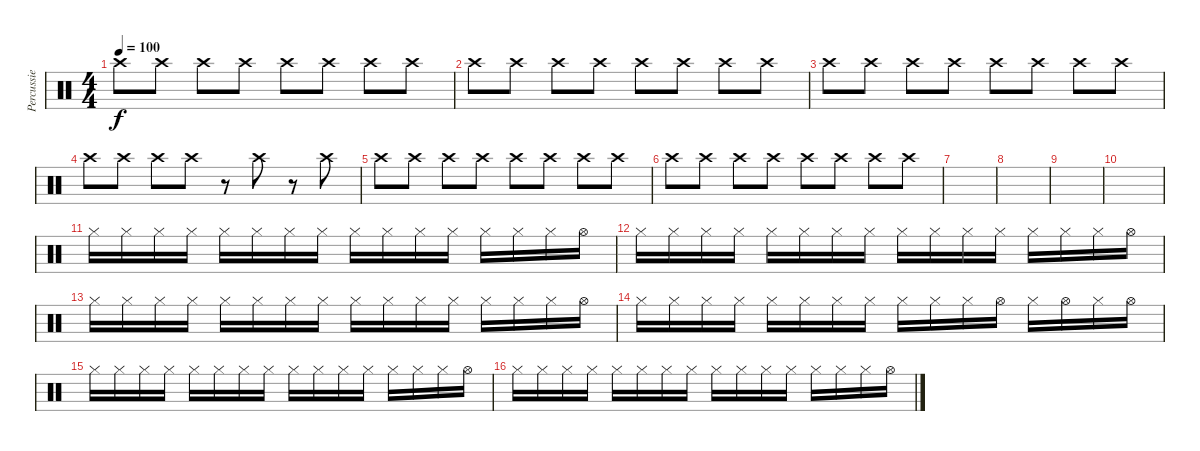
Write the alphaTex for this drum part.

\track ("Percussie" "Percussie") {instrument percussion}
\staff {score}
\articulation defaults
\ts (4 4)
\tempo 100
\clef neutral
\ks c "Crash high (hit)".8{dy f} "Crash high (hit)".8 "Crash high (hit)".8 "Crash high (hit)".8 "Crash high (hit)".8 "Crash high (hit)".8 "Crash high (hit)".8 "Crash high (hit)".8
|
"Crash high (hit)".8 "Crash high (hit)".8 "Crash high (hit)".8 "Crash high (hit)".8 "Crash high (hit)".8 "Crash high (hit)".8 "Crash high (hit)".8 "Crash high (hit)".8 |
"Crash high (hit)".8 "Crash high (hit)".8 "Crash high (hit)".8 "Crash high (hit)".8 "Crash high (hit)".8 "Crash high (hit)".8 "Crash high (hit)".8 "Crash high (hit)".8 |
"Crash high (hit)".8 "Crash high (hit)".8 "Crash high (hit)".8 "Crash high (hit)".8 r.8 "Crash high (hit)".8 r.8 "Crash high (hit)".8 |
"Crash high (hit)".8 "Crash high (hit)".8 "Crash high (hit)".8 "Crash high (hit)".8 "Crash high (hit)".8 "Crash high (hit)".8 "Crash high (hit)".8 "Crash high (hit)".8 |
"Crash high (hit)".8 "Crash high (hit)".8 "Crash high (hit)".8 "Crash high (hit)".8 "Crash high (hit)".8 "Crash high (hit)".8 "Crash high (hit)".8 "Crash high (hit)".8 |
|
|
|
|
"Hi-Hat (closed)".16 "Hi-Hat (closed)".16 "Hi-Hat (closed)".16 "Hi-Hat (closed)".16 "Hi-Hat (closed)".16 "Hi-Hat (closed)".16 "Hi-Hat (closed)".16 "Hi-Hat (closed)".16 "Hi-Hat (closed)".16 "Hi-Hat (closed)".16 "Hi-Hat (closed)".16 "Hi-Hat (closed)".16 "Hi-Hat (closed)".16 "Hi-Hat (closed)".16 "Hi-Hat (closed)".16 "Hi-Hat (open)".16 |
"Hi-Hat (closed)".16 "Hi-Hat (closed)".16 "Hi-Hat (closed)".16 "Hi-Hat (closed)".16 "Hi-Hat (closed)".16 "Hi-Hat (closed)".16 "Hi-Hat (closed)".16 "Hi-Hat (closed)".16 "Hi-Hat (closed)".16 "Hi-Hat (closed)".16 "Hi-Hat (closed)".16 "Hi-Hat (closed)".16 "Hi-Hat (closed)".16 "Hi-Hat (closed)".16 "Hi-Hat (closed)".16 "Hi-Hat (open)".16 |
"Hi-Hat (closed)".16 "Hi-Hat (closed)".16 "Hi-Hat (closed)".16 "Hi-Hat (closed)".16 "Hi-Hat (closed)".16 "Hi-Hat (closed)".16 "Hi-Hat (closed)".16 "Hi-Hat (closed)".16 "Hi-Hat (closed)".16 "Hi-Hat (closed)".16 "Hi-Hat (closed)".16 "Hi-Hat (closed)".16 "Hi-Hat (closed)".16 "Hi-Hat (closed)".16 "Hi-Hat (closed)".16 "Hi-Hat (open)".16 |
"Hi-Hat (closed)".16 "Hi-Hat (closed)".16 "Hi-Hat (closed)".16 "Hi-Hat (closed)".16 "Hi-Hat (closed)".16 "Hi-Hat (closed)".16 "Hi-Hat (closed)".16 "Hi-Hat (closed)".16 "Hi-Hat (closed)".16 "Hi-Hat (closed)".16 "Hi-Hat (closed)".16 "Hi-Hat (open)".16 "Hi-Hat (closed)".16 "Hi-Hat (open)".16 "Hi-Hat (closed)".16 "Hi-Hat (open)".16 |
"Hi-Hat (closed)".16 "Hi-Hat (closed)".16 "Hi-Hat (closed)".16 "Hi-Hat (closed)".16 "Hi-Hat (closed)".16 "Hi-Hat (closed)".16 "Hi-Hat (closed)".16 "Hi-Hat (closed)".16 "Hi-Hat (closed)".16 "Hi-Hat (closed)".16 "Hi-Hat (closed)".16 "Hi-Hat (closed)".16 "Hi-Hat (closed)".16 "Hi-Hat (closed)".16 "Hi-Hat (closed)".16 "Hi-Hat (open)".16 |
"Hi-Hat (closed)".16 "Hi-Hat (closed)".16 "Hi-Hat (closed)".16 "Hi-Hat (closed)".16 "Hi-Hat (closed)".16 "Hi-Hat (closed)".16 "Hi-Hat (closed)".16 "Hi-Hat (closed)".16 "Hi-Hat (closed)".16 "Hi-Hat (closed)".16 "Hi-Hat (closed)".16 "Hi-Hat (closed)".16 "Hi-Hat (closed)".16 "Hi-Hat (closed)".16 "Hi-Hat (closed)".16 "Hi-Hat (open)".16
